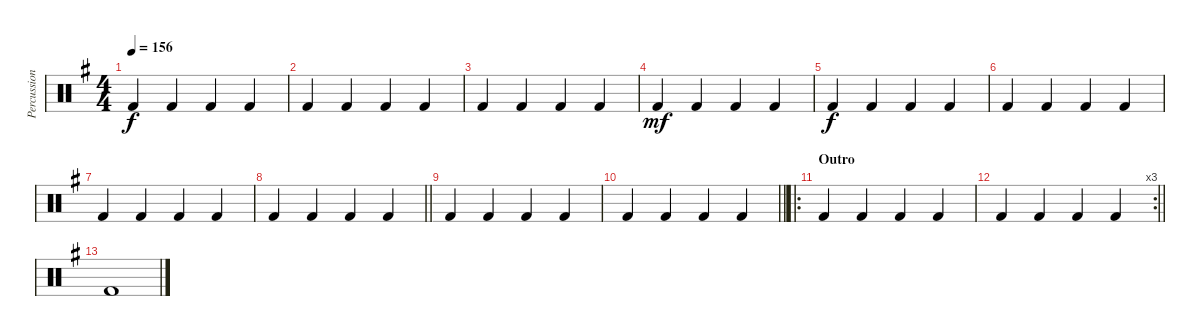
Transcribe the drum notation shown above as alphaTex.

\track ("Percussion" "Percussion") {instrument percussion}
\staff {score}
\articulation defaults
\ts (4 4)
\tempo 156
\clef neutral
\ks g "Kick (hit) 2".4{dy f} "Kick (hit) 2".4 "Kick (hit) 2".4 "Kick (hit) 2".4
|
"Kick (hit) 2".4 "Kick (hit) 2".4 "Kick (hit) 2".4 "Kick (hit) 2".4 |
"Kick (hit) 2".4 "Kick (hit) 2".4 "Kick (hit) 2".4 "Kick (hit) 2".4 |
"Kick (hit) 2".4{dy mf} "Kick (hit) 2".4 "Kick (hit) 2".4 "Kick (hit) 2".4 |
"Kick (hit) 2".4{dy f} "Kick (hit) 2".4 "Kick (hit) 2".4 "Kick (hit) 2".4 |
"Kick (hit) 2".4 "Kick (hit) 2".4 "Kick (hit) 2".4 "Kick (hit) 2".4 |
"Kick (hit) 2".4 "Kick (hit) 2".4 "Kick (hit) 2".4 "Kick (hit) 2".4 |
\barLineRight lightlight "Kick (hit) 2".4 "Kick (hit) 2".4 "Kick (hit) 2".4 "Kick (hit) 2".4
|
"Kick (hit) 2".4 "Kick (hit) 2".4 "Kick (hit) 2".4 "Kick (hit) 2".4 |
\barLineRight lightlight "Kick (hit) 2".4 "Kick (hit) 2".4 "Kick (hit) 2".4 "Kick (hit) 2".4
|
\ro
\section ("" "Outro")
"Kick (hit) 2".4 "Kick (hit) 2".4 "Kick (hit) 2".4 "Kick (hit) 2".4 |
\rc 3
\barLineRight lightlight "Kick (hit) 2".4 "Kick (hit) 2".4 "Kick (hit) 2".4 "Kick (hit) 2".4
|
"Kick (hit) 2".1
